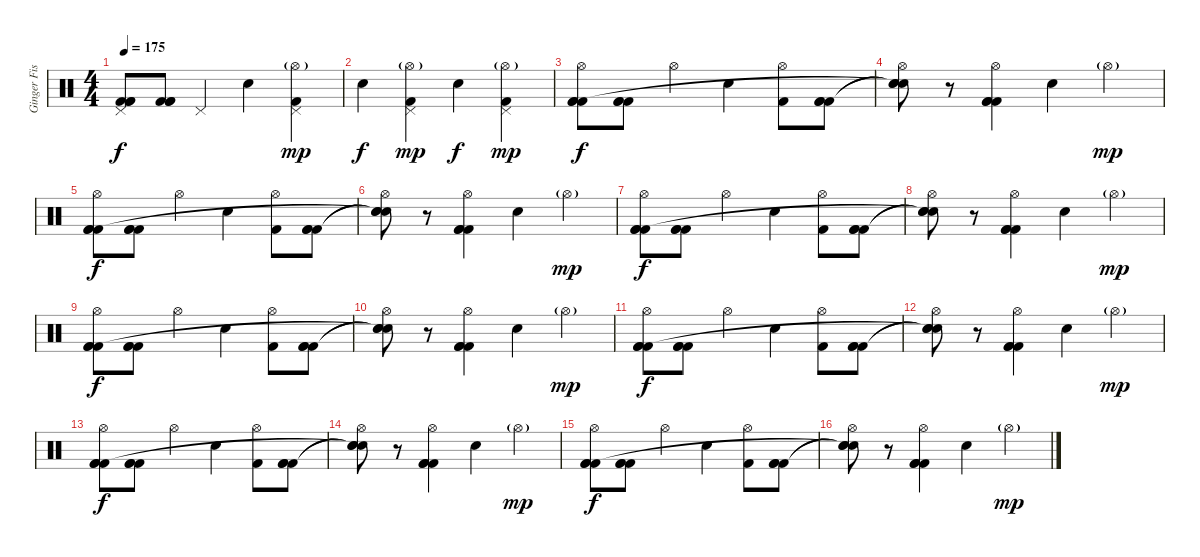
\track ("Ginger Fish" "Ginger Fis") {instrument percussion}
\staff {score}
\articulation defaults
\ts (4 4)
\tempo 175
\clef neutral
\ks c
("Pedal Hi-Hat (hit)" "Kick (hit) 2" "Kick (hit) 2" "Kick (hit) 2").8{dy f} ("Kick (hit) 2" "Kick (hit) 2" "Kick (hit) 2").8 "Pedal Hi-Hat (hit)".4 "Snare (hit) 2".4 ("Pedal Hi-Hat (hit)" "Hi-Hat (open)"{g} "Kick (hit) 2").4{dy mp} |
"Snare (hit) 2".4{dy f} ("Pedal Hi-Hat (hit)" "Hi-Hat (open)"{g} "Kick (hit) 2").4{dy mp} "Snare (hit) 2".4{dy f} ("Pedal Hi-Hat (hit)" "Hi-Hat (open)"{g} "Kick (hit) 2").4{dy mp} |
("Hi-Hat (open)" "Kick (hit) 2" "Kick (hit) 2" "Kick (hit) 2").8{dy f} ("Kick (hit) 2" "Kick (hit) 2" "Kick (hit) 2").8 "Hi-Hat (open)".4 "Snare (hit) 2".4 ("Hi-Hat (open)" "Kick (hit) 2").8 ("Kick (hit) 2" "Kick (hit) 2" "Kick (hit) 2").8 |
("Hi-Hat (open)" "Snare (hit)"{t} "Snare (hit)"{t} "Snare (hit)"{t}).8 r.8 ("Hi-Hat (open)" "Kick (hit) 2" "Kick (hit) 2" "Kick (hit) 2").4 "Snare (hit) 2".4 "Hi-Hat (open)"{g}.4{dy mp} |
("Hi-Hat (open)" "Kick (hit) 2" "Kick (hit) 2" "Kick (hit) 2").8{dy f} ("Kick (hit) 2" "Kick (hit) 2" "Kick (hit) 2").8 "Hi-Hat (open)".4 "Snare (hit) 2".4 ("Hi-Hat (open)" "Kick (hit) 2").8 ("Kick (hit) 2" "Kick (hit) 2" "Kick (hit) 2").8 |
("Hi-Hat (open)" "Snare (hit)"{t} "Snare (hit)"{t} "Snare (hit)"{t}).8 r.8 ("Hi-Hat (open)" "Kick (hit) 2" "Kick (hit) 2" "Kick (hit) 2").4 "Snare (hit) 2".4 "Hi-Hat (open)"{g}.4{dy mp} |
("Hi-Hat (open)" "Kick (hit) 2" "Kick (hit) 2" "Kick (hit) 2").8{dy f} ("Kick (hit) 2" "Kick (hit) 2" "Kick (hit) 2").8 "Hi-Hat (open)".4 "Snare (hit) 2".4 ("Hi-Hat (open)" "Kick (hit) 2").8 ("Kick (hit) 2" "Kick (hit) 2" "Kick (hit) 2").8 |
("Hi-Hat (open)" "Snare (hit)"{t} "Snare (hit)"{t} "Snare (hit)"{t}).8 r.8 ("Hi-Hat (open)" "Kick (hit) 2" "Kick (hit) 2" "Kick (hit) 2").4 "Snare (hit) 2".4 "Hi-Hat (open)"{g}.4{dy mp} |
("Hi-Hat (open)" "Kick (hit) 2" "Kick (hit) 2" "Kick (hit) 2").8{dy f} ("Kick (hit) 2" "Kick (hit) 2" "Kick (hit) 2").8 "Hi-Hat (open)".4 "Snare (hit) 2".4 ("Hi-Hat (open)" "Kick (hit) 2").8 ("Kick (hit) 2" "Kick (hit) 2" "Kick (hit) 2").8 |
("Hi-Hat (open)" "Snare (hit)"{t} "Snare (hit)"{t} "Snare (hit)"{t}).8 r.8 ("Hi-Hat (open)" "Kick (hit) 2" "Kick (hit) 2" "Kick (hit) 2").4 "Snare (hit) 2".4 "Hi-Hat (open)"{g}.4{dy mp} |
("Hi-Hat (open)" "Kick (hit) 2" "Kick (hit) 2" "Kick (hit) 2").8{dy f} ("Kick (hit) 2" "Kick (hit) 2" "Kick (hit) 2").8 "Hi-Hat (open)".4 "Snare (hit) 2".4 ("Hi-Hat (open)" "Kick (hit) 2").8 ("Kick (hit) 2" "Kick (hit) 2" "Kick (hit) 2").8 |
("Hi-Hat (open)" "Snare (hit)"{t} "Snare (hit)"{t} "Snare (hit)"{t}).8 r.8 ("Hi-Hat (open)" "Kick (hit) 2" "Kick (hit) 2" "Kick (hit) 2").4 "Snare (hit) 2".4 "Hi-Hat (open)"{g}.4{dy mp} |
("Hi-Hat (open)" "Kick (hit) 2" "Kick (hit) 2" "Kick (hit) 2").8{dy f} ("Kick (hit) 2" "Kick (hit) 2" "Kick (hit) 2").8 "Hi-Hat (open)".4 "Snare (hit) 2".4 ("Hi-Hat (open)" "Kick (hit) 2").8 ("Kick (hit) 2" "Kick (hit) 2" "Kick (hit) 2").8 |
("Hi-Hat (open)" "Snare (hit)"{t} "Snare (hit)"{t} "Snare (hit)"{t}).8 r.8 ("Hi-Hat (open)" "Kick (hit) 2" "Kick (hit) 2" "Kick (hit) 2").4 "Snare (hit) 2".4 "Hi-Hat (open)"{g}.4{dy mp} |
("Hi-Hat (open)" "Kick (hit) 2" "Kick (hit) 2" "Kick (hit) 2").8{dy f} ("Kick (hit) 2" "Kick (hit) 2" "Kick (hit) 2").8 "Hi-Hat (open)".4 "Snare (hit) 2".4 ("Hi-Hat (open)" "Kick (hit) 2").8 ("Kick (hit) 2" "Kick (hit) 2" "Kick (hit) 2").8 |
("Hi-Hat (open)" "Snare (hit)"{t} "Snare (hit)"{t} "Snare (hit)"{t}).8 r.8 ("Hi-Hat (open)" "Kick (hit) 2" "Kick (hit) 2" "Kick (hit) 2").4 "Snare (hit) 2".4 "Hi-Hat (open)"{g}.4{dy mp}
